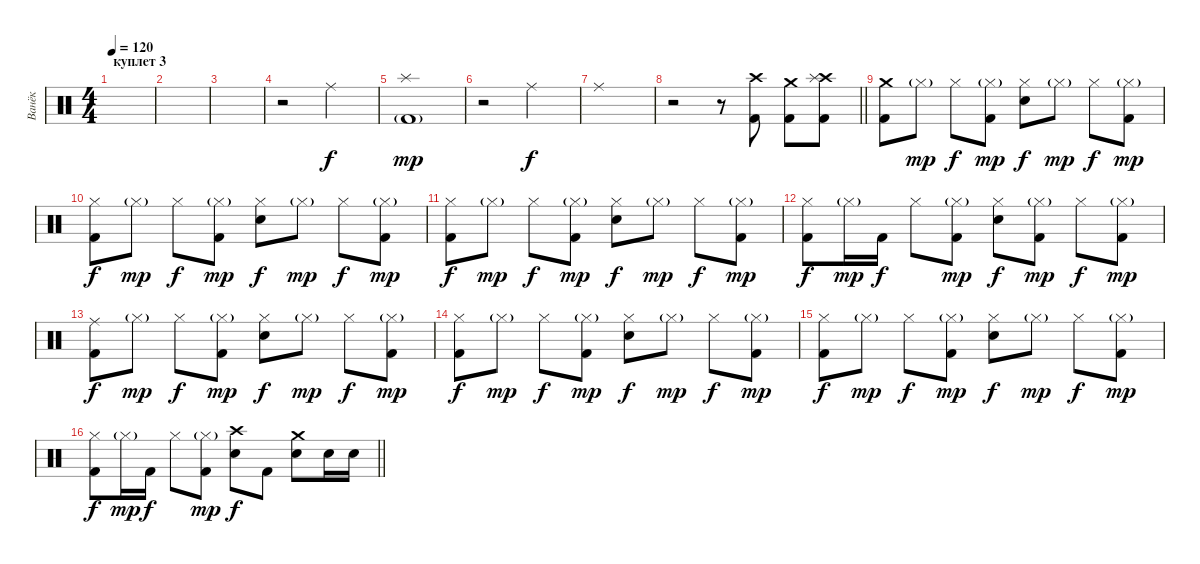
\track ("Ванёк" "Ванёк") {instrument percussion}
\staff {score}
\articulation defaults
\ts (4 4)
\section ("" "куплет 3")
\tempo 120
\clef neutral
\ks c
|
|
|
r.2 "Ride (middle)".2 |
("Splash (hit)" "Kick (hit) 2"{g}).1{dy mp} |
r.2 "Ride (middle)".2{dy f} |
"Ride (middle)".1 |
\barLineRight lightlight
r.2 r.8 ("Crash high (hit)" "Kick (hit) 2").8 ("Crash medium (hit)" "Kick (hit) 2").8 ("Crash high (hit)" "Splash (hit)" "Kick (hit) 2").8 |
("Crash medium (hit)" "Kick (hit) 2").8 "Hi-Hat (closed)"{g}.8{dy mp} "Hi-Hat (closed)".8{dy f} ("Hi-Hat (closed)"{g} "Kick (hit) 2").8{dy mp} ("Hi-Hat (closed)" "Snare (hit) 2").8{dy f} "Hi-Hat (closed)"{g}.8{dy mp} "Hi-Hat (closed)".8{dy f} ("Hi-Hat (closed)"{g} "Kick (hit) 2").8{dy mp} |
("Hi-Hat (closed)" "Kick (hit) 2").8{dy f} "Hi-Hat (closed)"{g}.8{dy mp} "Hi-Hat (closed)".8{dy f} ("Hi-Hat (closed)"{g} "Kick (hit) 2").8{dy mp} ("Hi-Hat (closed)" "Snare (hit) 2").8{dy f} "Hi-Hat (closed)"{g}.8{dy mp} "Hi-Hat (closed)".8{dy f} ("Hi-Hat (closed)"{g} "Kick (hit) 2").8{dy mp} |
("Hi-Hat (closed)" "Kick (hit) 2").8{dy f} "Hi-Hat (closed)"{g}.8{dy mp} "Hi-Hat (closed)".8{dy f} ("Hi-Hat (closed)"{g} "Kick (hit) 2").8{dy mp} ("Hi-Hat (closed)" "Snare (hit) 2").8{dy f} "Hi-Hat (closed)"{g}.8{dy mp} "Hi-Hat (closed)".8{dy f} ("Hi-Hat (closed)"{g} "Kick (hit) 2").8{dy mp} |
("Hi-Hat (closed)" "Kick (hit) 2").8{dy f} "Hi-Hat (closed)"{g}.16{dy mp} "Kick (hit) 2".16{dy f} "Hi-Hat (closed)".8 ("Hi-Hat (closed)"{g} "Kick (hit) 2").8{dy mp} ("Hi-Hat (closed)" "Snare (hit) 2").8{dy f} ("Hi-Hat (closed)"{g} "Kick (hit) 2").8{dy mp} "Hi-Hat (closed)".8{dy f} ("Hi-Hat (closed)"{g} "Kick (hit) 2").8{dy mp} |
("Ride (middle)" "Kick (hit) 2").8{dy f} "Hi-Hat (closed)"{g}.8{dy mp} "Hi-Hat (closed)".8{dy f} ("Hi-Hat (closed)"{g} "Kick (hit) 2").8{dy mp} ("Hi-Hat (closed)" "Snare (hit) 2").8{dy f} "Hi-Hat (closed)"{g}.8{dy mp} "Hi-Hat (closed)".8{dy f} ("Hi-Hat (closed)"{g} "Kick (hit) 2").8{dy mp} |
("Hi-Hat (closed)" "Kick (hit) 2").8{dy f} "Hi-Hat (closed)"{g}.8{dy mp} "Hi-Hat (closed)".8{dy f} ("Hi-Hat (closed)"{g} "Kick (hit) 2").8{dy mp} ("Hi-Hat (closed)" "Snare (hit) 2").8{dy f} "Hi-Hat (closed)"{g}.8{dy mp} "Hi-Hat (closed)".8{dy f} ("Hi-Hat (closed)"{g} "Kick (hit) 2").8{dy mp} |
("Hi-Hat (closed)" "Kick (hit) 2").8{dy f} "Hi-Hat (closed)"{g}.8{dy mp} "Hi-Hat (closed)".8{dy f} ("Hi-Hat (closed)"{g} "Kick (hit) 2").8{dy mp} ("Hi-Hat (closed)" "Snare (hit) 2").8{dy f} "Hi-Hat (closed)"{g}.8{dy mp} "Hi-Hat (closed)".8{dy f} ("Hi-Hat (closed)"{g} "Kick (hit) 2").8{dy mp} |
\barLineRight lightlight
("Hi-Hat (closed)" "Kick (hit) 2").8{dy f} "Hi-Hat (closed)"{g}.16{dy mp} "Kick (hit) 2".16{dy f} "Hi-Hat (closed)".8 ("Hi-Hat (closed)"{g} "Kick (hit) 2").8{dy mp} ("Crash high (hit)" "Snare (hit) 2").8{dy f} "Kick (hit) 2".8 ("Crash medium (hit)" "Snare (hit) 2").8 "Snare (hit) 2".16 "Snare (hit) 2".16
